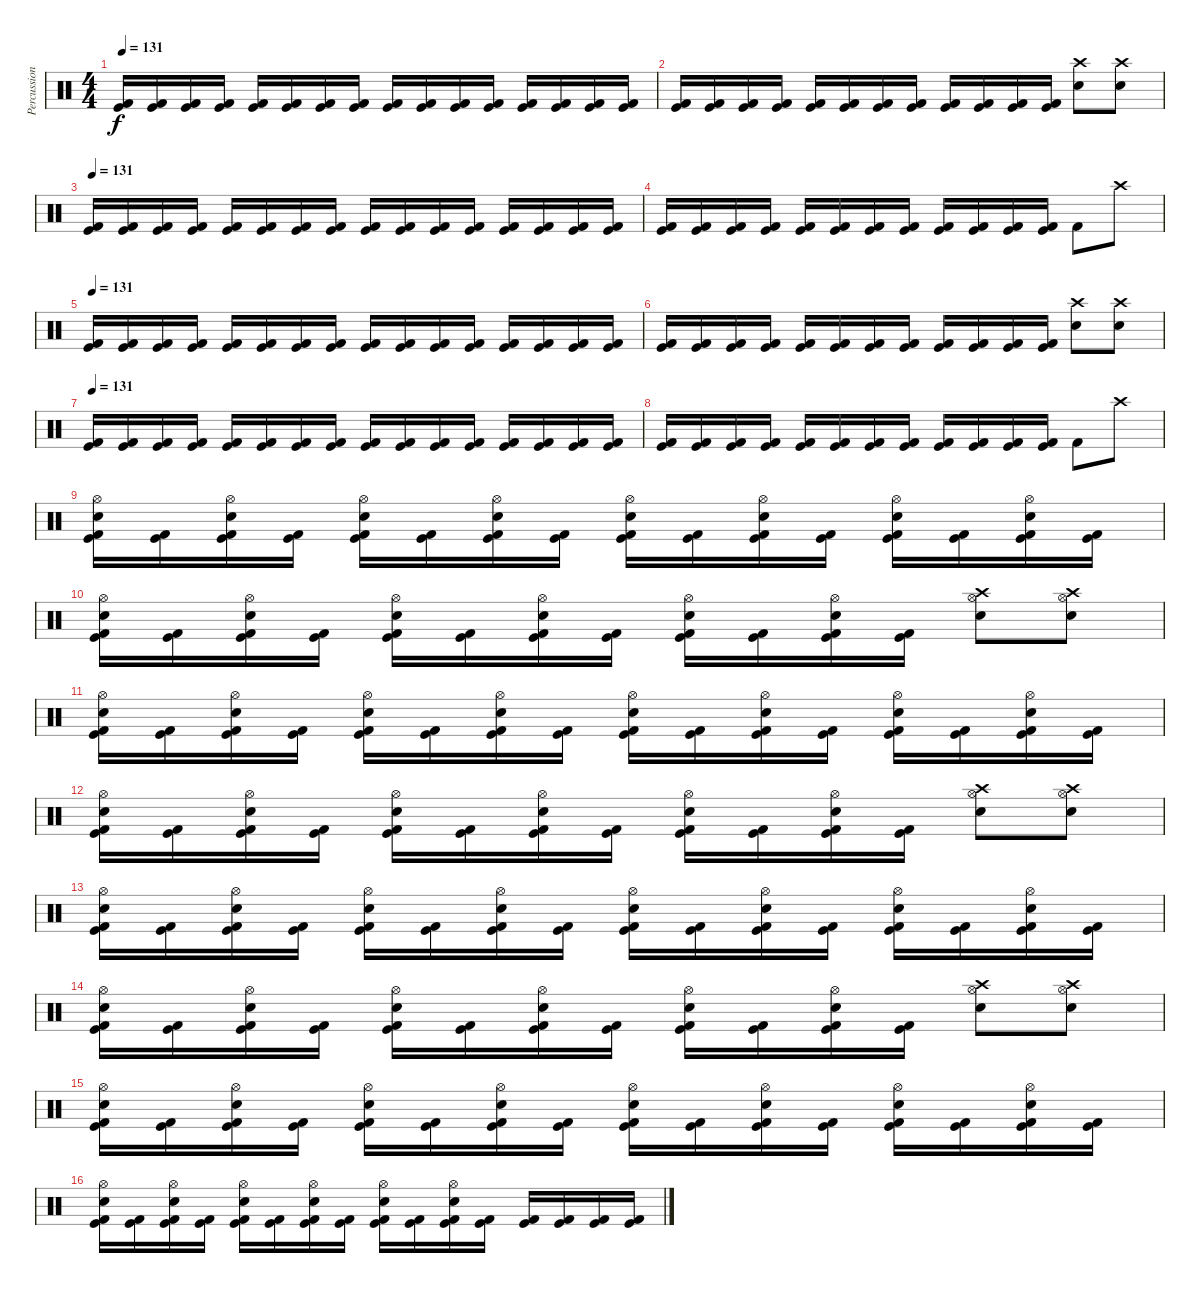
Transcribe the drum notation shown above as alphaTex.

\track ("Percussion" "Percussion") {instrument percussion}
\staff {score}
\articulation defaults
\ts (4 4)
\tempo 131
\clef neutral
\ks c
("Kick (hit)" "Kick (hit) 2").16{dy f} ("Kick (hit)" "Kick (hit) 2").16 ("Kick (hit)" "Kick (hit) 2").16 ("Kick (hit)" "Kick (hit) 2").16 ("Kick (hit)" "Kick (hit) 2").16 ("Kick (hit)" "Kick (hit) 2").16 ("Kick (hit)" "Kick (hit) 2").16 ("Kick (hit)" "Kick (hit) 2").16 ("Kick (hit)" "Kick (hit) 2").16 ("Kick (hit)" "Kick (hit) 2").16 ("Kick (hit)" "Kick (hit) 2").16 ("Kick (hit)" "Kick (hit) 2").16 ("Kick (hit)" "Kick (hit) 2").16 ("Kick (hit)" "Kick (hit) 2").16 ("Kick (hit)" "Kick (hit) 2").16 ("Kick (hit)" "Kick (hit) 2").16 |
("Kick (hit)" "Kick (hit) 2").16 ("Kick (hit)" "Kick (hit) 2").16 ("Kick (hit)" "Kick (hit) 2").16 ("Kick (hit)" "Kick (hit) 2").16 ("Kick (hit)" "Kick (hit) 2").16 ("Kick (hit)" "Kick (hit) 2").16 ("Kick (hit)" "Kick (hit) 2").16 ("Kick (hit)" "Kick (hit) 2").16 ("Kick (hit)" "Kick (hit) 2").16 ("Kick (hit)" "Kick (hit) 2").16 ("Kick (hit)" "Kick (hit) 2").16 ("Kick (hit)" "Kick (hit) 2").16 ("Crash high (hit)" "Snare (hit) 2").8 ("Crash high (hit)" "Snare (hit) 2").8 |
\tempo 131
("Kick (hit)" "Kick (hit) 2").16 ("Kick (hit)" "Kick (hit) 2").16 ("Kick (hit)" "Kick (hit) 2").16 ("Kick (hit)" "Kick (hit) 2").16 ("Kick (hit)" "Kick (hit) 2").16 ("Kick (hit)" "Kick (hit) 2").16 ("Kick (hit)" "Kick (hit) 2").16 ("Kick (hit)" "Kick (hit) 2").16 ("Kick (hit)" "Kick (hit) 2").16 ("Kick (hit)" "Kick (hit) 2").16 ("Kick (hit)" "Kick (hit) 2").16 ("Kick (hit)" "Kick (hit) 2").16 ("Kick (hit)" "Kick (hit) 2").16 ("Kick (hit)" "Kick (hit) 2").16 ("Kick (hit)" "Kick (hit) 2").16 ("Kick (hit)" "Kick (hit) 2").16 |
("Kick (hit)" "Kick (hit) 2").16 ("Kick (hit)" "Kick (hit) 2").16 ("Kick (hit)" "Kick (hit) 2").16 ("Kick (hit)" "Kick (hit) 2").16 ("Kick (hit)" "Kick (hit) 2").16 ("Kick (hit)" "Kick (hit) 2").16 ("Kick (hit)" "Kick (hit) 2").16 ("Kick (hit)" "Kick (hit) 2").16 ("Kick (hit)" "Kick (hit) 2").16 ("Kick (hit)" "Kick (hit) 2").16 ("Kick (hit)" "Kick (hit) 2").16 ("Kick (hit)" "Kick (hit) 2").16 "Kick (hit) 2".8 "Crash high (hit)".8 |
\tempo 131
("Kick (hit)" "Kick (hit) 2").16 ("Kick (hit)" "Kick (hit) 2").16 ("Kick (hit)" "Kick (hit) 2").16 ("Kick (hit)" "Kick (hit) 2").16 ("Kick (hit)" "Kick (hit) 2").16 ("Kick (hit)" "Kick (hit) 2").16 ("Kick (hit)" "Kick (hit) 2").16 ("Kick (hit)" "Kick (hit) 2").16 ("Kick (hit)" "Kick (hit) 2").16 ("Kick (hit)" "Kick (hit) 2").16 ("Kick (hit)" "Kick (hit) 2").16 ("Kick (hit)" "Kick (hit) 2").16 ("Kick (hit)" "Kick (hit) 2").16 ("Kick (hit)" "Kick (hit) 2").16 ("Kick (hit)" "Kick (hit) 2").16 ("Kick (hit)" "Kick (hit) 2").16 |
("Kick (hit)" "Kick (hit) 2").16 ("Kick (hit)" "Kick (hit) 2").16 ("Kick (hit)" "Kick (hit) 2").16 ("Kick (hit)" "Kick (hit) 2").16 ("Kick (hit)" "Kick (hit) 2").16 ("Kick (hit)" "Kick (hit) 2").16 ("Kick (hit)" "Kick (hit) 2").16 ("Kick (hit)" "Kick (hit) 2").16 ("Kick (hit)" "Kick (hit) 2").16 ("Kick (hit)" "Kick (hit) 2").16 ("Kick (hit)" "Kick (hit) 2").16 ("Kick (hit)" "Kick (hit) 2").16 ("Crash high (hit)" "Snare (hit) 2").8 ("Crash high (hit)" "Snare (hit) 2").8 |
\tempo 131
("Kick (hit)" "Kick (hit) 2").16 ("Kick (hit)" "Kick (hit) 2").16 ("Kick (hit)" "Kick (hit) 2").16 ("Kick (hit)" "Kick (hit) 2").16 ("Kick (hit)" "Kick (hit) 2").16 ("Kick (hit)" "Kick (hit) 2").16 ("Kick (hit)" "Kick (hit) 2").16 ("Kick (hit)" "Kick (hit) 2").16 ("Kick (hit)" "Kick (hit) 2").16 ("Kick (hit)" "Kick (hit) 2").16 ("Kick (hit)" "Kick (hit) 2").16 ("Kick (hit)" "Kick (hit) 2").16 ("Kick (hit)" "Kick (hit) 2").16 ("Kick (hit)" "Kick (hit) 2").16 ("Kick (hit)" "Kick (hit) 2").16 ("Kick (hit)" "Kick (hit) 2").16 |
("Kick (hit)" "Kick (hit) 2").16 ("Kick (hit)" "Kick (hit) 2").16 ("Kick (hit)" "Kick (hit) 2").16 ("Kick (hit)" "Kick (hit) 2").16 ("Kick (hit)" "Kick (hit) 2").16 ("Kick (hit)" "Kick (hit) 2").16 ("Kick (hit)" "Kick (hit) 2").16 ("Kick (hit)" "Kick (hit) 2").16 ("Kick (hit)" "Kick (hit) 2").16 ("Kick (hit)" "Kick (hit) 2").16 ("Kick (hit)" "Kick (hit) 2").16 ("Kick (hit)" "Kick (hit) 2").16 "Kick (hit) 2".8 "Crash high (hit)".8 |
("Snare (hit) 2" "Hi-Hat (open)" "Kick (hit)" "Kick (hit) 2").16 ("Kick (hit)" "Kick (hit) 2").16 ("Snare (hit) 2" "Hi-Hat (open)" "Kick (hit)" "Kick (hit) 2").16 ("Kick (hit)" "Kick (hit) 2").16 ("Snare (hit) 2" "Hi-Hat (open)" "Kick (hit)" "Kick (hit) 2").16 ("Kick (hit)" "Kick (hit) 2").16 ("Snare (hit) 2" "Hi-Hat (open)" "Kick (hit)" "Kick (hit) 2").16 ("Kick (hit)" "Kick (hit) 2").16 ("Snare (hit) 2" "Hi-Hat (open)" "Kick (hit)" "Kick (hit) 2").16 ("Kick (hit)" "Kick (hit) 2").16 ("Snare (hit) 2" "Hi-Hat (open)" "Kick (hit)" "Kick (hit) 2").16 ("Kick (hit)" "Kick (hit) 2").16 ("Snare (hit) 2" "Hi-Hat (open)" "Kick (hit)" "Kick (hit) 2").16 ("Kick (hit)" "Kick (hit) 2").16 ("Snare (hit) 2" "Hi-Hat (open)" "Kick (hit)" "Kick (hit) 2").16 ("Kick (hit)" "Kick (hit) 2").16 |
("Snare (hit) 2" "Hi-Hat (open)" "Kick (hit)" "Kick (hit) 2").16 ("Kick (hit)" "Kick (hit) 2").16 ("Snare (hit) 2" "Hi-Hat (open)" "Kick (hit)" "Kick (hit) 2").16 ("Kick (hit)" "Kick (hit) 2").16 ("Snare (hit) 2" "Hi-Hat (open)" "Kick (hit)" "Kick (hit) 2").16 ("Kick (hit)" "Kick (hit) 2").16 ("Snare (hit) 2" "Hi-Hat (open)" "Kick (hit)" "Kick (hit) 2").16 ("Kick (hit)" "Kick (hit) 2").16 ("Snare (hit) 2" "Hi-Hat (open)" "Kick (hit)" "Kick (hit) 2").16 ("Kick (hit)" "Kick (hit) 2").16 ("Snare (hit) 2" "Hi-Hat (open)" "Kick (hit)" "Kick (hit) 2").16 ("Kick (hit)" "Kick (hit) 2").16 ("Hi-Hat (open)" "Crash high (hit)" "Snare (hit) 2").8 ("Hi-Hat (open)" "Crash high (hit)" "Snare (hit) 2").8 |
("Snare (hit) 2" "Hi-Hat (open)" "Kick (hit)" "Kick (hit) 2").16 ("Kick (hit)" "Kick (hit) 2").16 ("Snare (hit) 2" "Hi-Hat (open)" "Kick (hit)" "Kick (hit) 2").16 ("Kick (hit)" "Kick (hit) 2").16 ("Snare (hit) 2" "Hi-Hat (open)" "Kick (hit)" "Kick (hit) 2").16 ("Kick (hit)" "Kick (hit) 2").16 ("Snare (hit) 2" "Hi-Hat (open)" "Kick (hit)" "Kick (hit) 2").16 ("Kick (hit)" "Kick (hit) 2").16 ("Snare (hit) 2" "Hi-Hat (open)" "Kick (hit)" "Kick (hit) 2").16 ("Kick (hit)" "Kick (hit) 2").16 ("Snare (hit) 2" "Hi-Hat (open)" "Kick (hit)" "Kick (hit) 2").16 ("Kick (hit)" "Kick (hit) 2").16 ("Snare (hit) 2" "Hi-Hat (open)" "Kick (hit)" "Kick (hit) 2").16 ("Kick (hit)" "Kick (hit) 2").16 ("Snare (hit) 2" "Hi-Hat (open)" "Kick (hit)" "Kick (hit) 2").16 ("Kick (hit)" "Kick (hit) 2").16 |
("Snare (hit) 2" "Hi-Hat (open)" "Kick (hit)" "Kick (hit) 2").16 ("Kick (hit)" "Kick (hit) 2").16 ("Snare (hit) 2" "Hi-Hat (open)" "Kick (hit)" "Kick (hit) 2").16 ("Kick (hit)" "Kick (hit) 2").16 ("Snare (hit) 2" "Hi-Hat (open)" "Kick (hit)" "Kick (hit) 2").16 ("Kick (hit)" "Kick (hit) 2").16 ("Snare (hit) 2" "Hi-Hat (open)" "Kick (hit)" "Kick (hit) 2").16 ("Kick (hit)" "Kick (hit) 2").16 ("Snare (hit) 2" "Hi-Hat (open)" "Kick (hit)" "Kick (hit) 2").16 ("Kick (hit)" "Kick (hit) 2").16 ("Snare (hit) 2" "Hi-Hat (open)" "Kick (hit)" "Kick (hit) 2").16 ("Kick (hit)" "Kick (hit) 2").16 ("Hi-Hat (open)" "Crash high (hit)" "Snare (hit) 2").8 ("Hi-Hat (open)" "Crash high (hit)" "Snare (hit) 2").8 |
("Snare (hit) 2" "Hi-Hat (open)" "Kick (hit)" "Kick (hit) 2").16 ("Kick (hit)" "Kick (hit) 2").16 ("Snare (hit) 2" "Hi-Hat (open)" "Kick (hit)" "Kick (hit) 2").16 ("Kick (hit)" "Kick (hit) 2").16 ("Snare (hit) 2" "Hi-Hat (open)" "Kick (hit)" "Kick (hit) 2").16 ("Kick (hit)" "Kick (hit) 2").16 ("Snare (hit) 2" "Hi-Hat (open)" "Kick (hit)" "Kick (hit) 2").16 ("Kick (hit)" "Kick (hit) 2").16 ("Snare (hit) 2" "Hi-Hat (open)" "Kick (hit)" "Kick (hit) 2").16 ("Kick (hit)" "Kick (hit) 2").16 ("Snare (hit) 2" "Hi-Hat (open)" "Kick (hit)" "Kick (hit) 2").16 ("Kick (hit)" "Kick (hit) 2").16 ("Snare (hit) 2" "Hi-Hat (open)" "Kick (hit)" "Kick (hit) 2").16 ("Kick (hit)" "Kick (hit) 2").16 ("Snare (hit) 2" "Hi-Hat (open)" "Kick (hit)" "Kick (hit) 2").16 ("Kick (hit)" "Kick (hit) 2").16 |
("Snare (hit) 2" "Hi-Hat (open)" "Kick (hit)" "Kick (hit) 2").16 ("Kick (hit)" "Kick (hit) 2").16 ("Snare (hit) 2" "Hi-Hat (open)" "Kick (hit)" "Kick (hit) 2").16 ("Kick (hit)" "Kick (hit) 2").16 ("Snare (hit) 2" "Hi-Hat (open)" "Kick (hit)" "Kick (hit) 2").16 ("Kick (hit)" "Kick (hit) 2").16 ("Snare (hit) 2" "Hi-Hat (open)" "Kick (hit)" "Kick (hit) 2").16 ("Kick (hit)" "Kick (hit) 2").16 ("Snare (hit) 2" "Hi-Hat (open)" "Kick (hit)" "Kick (hit) 2").16 ("Kick (hit)" "Kick (hit) 2").16 ("Snare (hit) 2" "Hi-Hat (open)" "Kick (hit)" "Kick (hit) 2").16 ("Kick (hit)" "Kick (hit) 2").16 ("Hi-Hat (open)" "Crash high (hit)" "Snare (hit) 2").8 ("Hi-Hat (open)" "Crash high (hit)" "Snare (hit) 2").8 |
("Snare (hit) 2" "Hi-Hat (open)" "Kick (hit)" "Kick (hit) 2").16 ("Kick (hit)" "Kick (hit) 2").16 ("Snare (hit) 2" "Hi-Hat (open)" "Kick (hit)" "Kick (hit) 2").16 ("Kick (hit)" "Kick (hit) 2").16 ("Snare (hit) 2" "Hi-Hat (open)" "Kick (hit)" "Kick (hit) 2").16 ("Kick (hit)" "Kick (hit) 2").16 ("Snare (hit) 2" "Hi-Hat (open)" "Kick (hit)" "Kick (hit) 2").16 ("Kick (hit)" "Kick (hit) 2").16 ("Snare (hit) 2" "Hi-Hat (open)" "Kick (hit)" "Kick (hit) 2").16 ("Kick (hit)" "Kick (hit) 2").16 ("Snare (hit) 2" "Hi-Hat (open)" "Kick (hit)" "Kick (hit) 2").16 ("Kick (hit)" "Kick (hit) 2").16 ("Snare (hit) 2" "Hi-Hat (open)" "Kick (hit)" "Kick (hit) 2").16 ("Kick (hit)" "Kick (hit) 2").16 ("Snare (hit) 2" "Hi-Hat (open)" "Kick (hit)" "Kick (hit) 2").16 ("Kick (hit)" "Kick (hit) 2").16 |
("Snare (hit) 2" "Hi-Hat (open)" "Kick (hit)" "Kick (hit) 2").16 ("Kick (hit)" "Kick (hit) 2").16 ("Snare (hit) 2" "Hi-Hat (open)" "Kick (hit)" "Kick (hit) 2").16 ("Kick (hit)" "Kick (hit) 2").16 ("Snare (hit) 2" "Hi-Hat (open)" "Kick (hit)" "Kick (hit) 2").16 ("Kick (hit)" "Kick (hit) 2").16 ("Snare (hit) 2" "Hi-Hat (open)" "Kick (hit)" "Kick (hit) 2").16 ("Kick (hit)" "Kick (hit) 2").16 ("Snare (hit) 2" "Hi-Hat (open)" "Kick (hit)" "Kick (hit) 2").16 ("Kick (hit)" "Kick (hit) 2").16 ("Snare (hit) 2" "Hi-Hat (open)" "Kick (hit)" "Kick (hit) 2").16 ("Kick (hit)" "Kick (hit) 2").16 ("Kick (hit)" "Kick (hit) 2").16 ("Kick (hit)" "Kick (hit) 2").16 ("Kick (hit)" "Kick (hit) 2").16 ("Kick (hit)" "Kick (hit) 2").16
